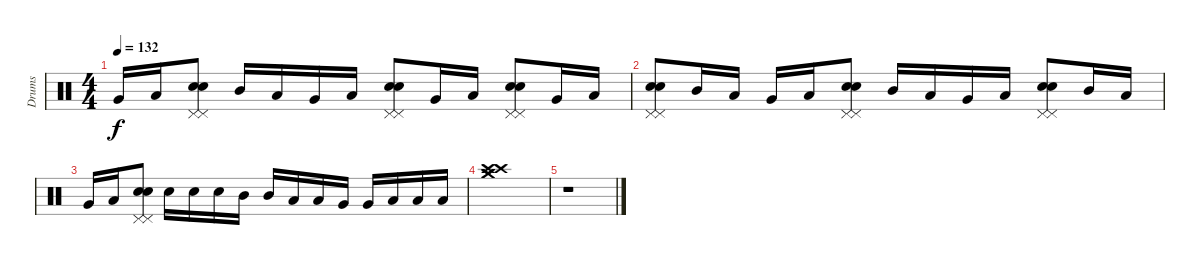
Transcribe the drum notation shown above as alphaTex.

\track ("Drums" "Drums") {instrument percussion}
\staff {score}
\articulation defaults
\ts (4 4)
\tempo 132
\clef neutral
\ks c "Very Low Tom (hit)".16{dy f} "Low Floor Tom (hit)".16
("Pedal Hi-Hat (hit)" "Pedal Hi-Hat (hit)" "Electric Snare (hit)" "Electric Snare (hit)").8 "Mid Tom (hit)".16 "Low Tom (hit)".16 "Very Low Tom (hit)".16 "Low Floor Tom (hit)".16 ("Pedal Hi-Hat (hit)" "Pedal Hi-Hat (hit)" "Electric Snare (hit)" "Electric Snare (hit)").8 "Very Low Tom (hit)".16 "Low Floor Tom (hit)".16 ("Pedal Hi-Hat (hit)" "Pedal Hi-Hat (hit)" "Electric Snare (hit)" "Electric Snare (hit)").8 "Very Low Tom (hit)".16 "Low Floor Tom (hit)".16 |
("Pedal Hi-Hat (hit)" "Pedal Hi-Hat (hit)" "Electric Snare (hit)" "Electric Snare (hit)").8 "Mid Tom (hit)".16 "Low Tom (hit)".16 "Very Low Tom (hit)".16 "Low Floor Tom (hit)".16 ("Pedal Hi-Hat (hit)" "Pedal Hi-Hat (hit)" "Electric Snare (hit)" "Electric Snare (hit)").8 "Mid Tom (hit)".16 "Low Tom (hit)".16 "Very Low Tom (hit)".16 "Low Floor Tom (hit)".16 ("Pedal Hi-Hat (hit)" "Pedal Hi-Hat (hit)" "Electric Snare (hit)" "Electric Snare (hit)").8 "Mid Tom (hit)".16 "Low Tom (hit)".16 |
"Very Low Tom (hit)".16 "Low Floor Tom (hit)".16 ("Pedal Hi-Hat (hit)" "Pedal Hi-Hat (hit)" "Electric Snare (hit)" "Electric Snare (hit)").8 "Electric Snare (hit)".16 "Electric Snare (hit)".16 "Electric Snare (hit)".16 "Mid Tom (hit)".16 "Mid Tom (hit)".16 "Low Tom (hit)".16 "Low Tom (hit)".16 "Very Low Tom (hit)".16 "Very Low Tom (hit)".16 "Low Floor Tom (hit)".16 "Low Floor Tom (hit)".16 "Low Floor Tom (hit)".16 |
("Crash high (hit)" "Crash medium (hit)" "Crash medium (hit)" "Crash high (hit)").1 |
r.1
